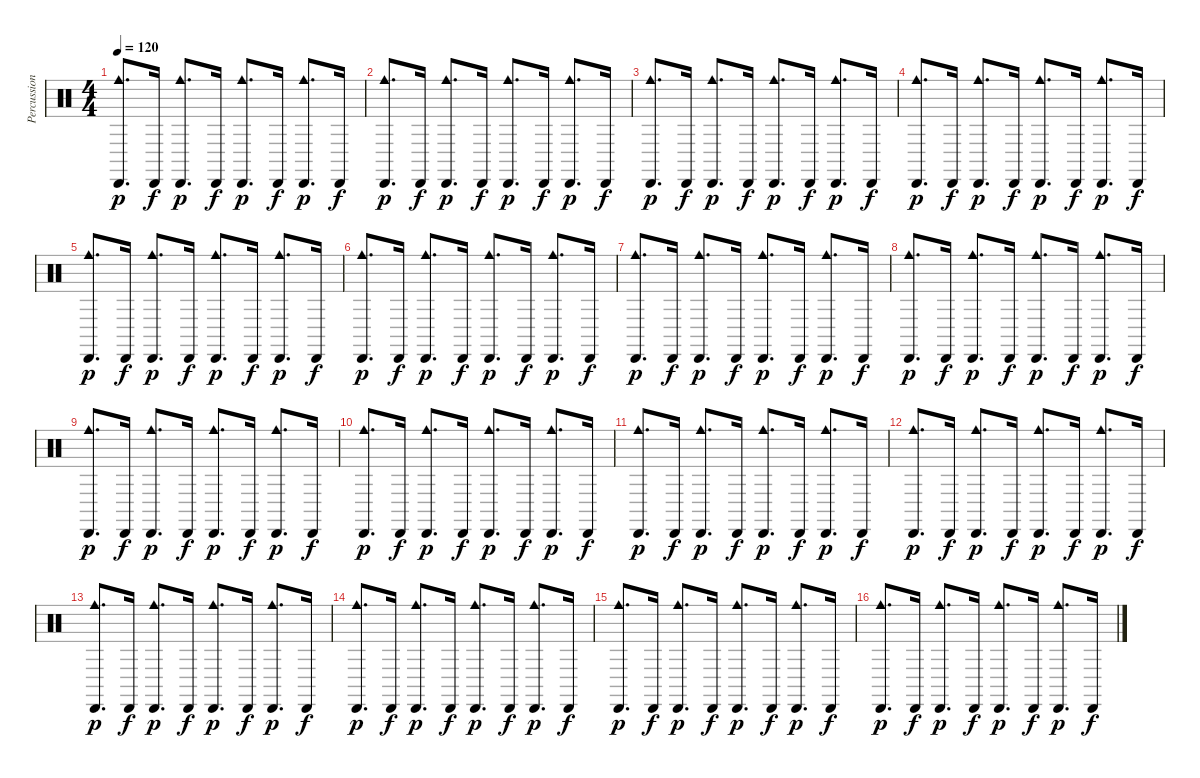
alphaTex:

\track ("Percussions" "Percussion") {instrument percussion}
\staff {score}
\articulation defaults
\ts (4 4)
\tempo 120
\clef neutral
\ks c
("Cabasa (hit)" "Cowbell medium (hit)").8{d dy p} "Cabasa (hit)".16{dy f} ("Cabasa (hit)" "Cowbell medium (hit)").8{d dy p} "Cabasa (hit)".16{dy f} ("Cabasa (hit)" "Cowbell medium (hit)").8{d dy p} "Cabasa (hit)".16{dy f} ("Cabasa (hit)" "Cowbell medium (hit)").8{d dy p} "Cabasa (hit)".16{dy f} |
("Cabasa (hit)" "Cowbell medium (hit)").8{d dy p} "Cabasa (hit)".16{dy f} ("Cabasa (hit)" "Cowbell medium (hit)").8{d dy p} "Cabasa (hit)".16{dy f} ("Cabasa (hit)" "Cowbell medium (hit)").8{d dy p} "Cabasa (hit)".16{dy f} ("Cabasa (hit)" "Cowbell medium (hit)").8{d dy p} "Cabasa (hit)".16{dy f} |
("Cabasa (hit)" "Cowbell medium (hit)").8{d dy p} "Cabasa (hit)".16{dy f} ("Cabasa (hit)" "Cowbell medium (hit)").8{d dy p} "Cabasa (hit)".16{dy f} ("Cabasa (hit)" "Cowbell medium (hit)").8{d dy p} "Cabasa (hit)".16{dy f} ("Cabasa (hit)" "Cowbell medium (hit)").8{d dy p} "Cabasa (hit)".16{dy f} |
("Cabasa (hit)" "Cowbell medium (hit)").8{d dy p} "Cabasa (hit)".16{dy f} ("Cabasa (hit)" "Cowbell medium (hit)").8{d dy p} "Cabasa (hit)".16{dy f} ("Cabasa (hit)" "Cowbell medium (hit)").8{d dy p} "Cabasa (hit)".16{dy f} ("Cabasa (hit)" "Cowbell medium (hit)").8{d dy p} "Cabasa (hit)".16{dy f} |
("Cabasa (hit)" "Cowbell medium (hit)").8{d dy p} "Cabasa (hit)".16{dy f} ("Cabasa (hit)" "Cowbell medium (hit)").8{d dy p} "Cabasa (hit)".16{dy f} ("Cabasa (hit)" "Cowbell medium (hit)").8{d dy p} "Cabasa (hit)".16{dy f} ("Cabasa (hit)" "Cowbell medium (hit)").8{d dy p} "Cabasa (hit)".16{dy f} |
("Cabasa (hit)" "Cowbell medium (hit)").8{d dy p} "Cabasa (hit)".16{dy f} ("Cabasa (hit)" "Cowbell medium (hit)").8{d dy p} "Cabasa (hit)".16{dy f} ("Cabasa (hit)" "Cowbell medium (hit)").8{d dy p} "Cabasa (hit)".16{dy f} ("Cabasa (hit)" "Cowbell medium (hit)").8{d dy p} "Cabasa (hit)".16{dy f} |
("Cabasa (hit)" "Cowbell medium (hit)").8{d dy p} "Cabasa (hit)".16{dy f} ("Cabasa (hit)" "Cowbell medium (hit)").8{d dy p} "Cabasa (hit)".16{dy f} ("Cabasa (hit)" "Cowbell medium (hit)").8{d dy p} "Cabasa (hit)".16{dy f} ("Cabasa (hit)" "Cowbell medium (hit)").8{d dy p} "Cabasa (hit)".16{dy f} |
("Cabasa (hit)" "Cowbell medium (hit)").8{d dy p} "Cabasa (hit)".16{dy f} ("Cabasa (hit)" "Cowbell medium (hit)").8{d dy p} "Cabasa (hit)".16{dy f} ("Cabasa (hit)" "Cowbell medium (hit)").8{d dy p} "Cabasa (hit)".16{dy f} ("Cabasa (hit)" "Cowbell medium (hit)").8{d dy p} "Cabasa (hit)".16{dy f} |
("Cabasa (hit)" "Cowbell medium (hit)").8{d dy p} "Cabasa (hit)".16{dy f} ("Cabasa (hit)" "Cowbell medium (hit)").8{d dy p} "Cabasa (hit)".16{dy f} ("Cabasa (hit)" "Cowbell medium (hit)").8{d dy p} "Cabasa (hit)".16{dy f} ("Cabasa (hit)" "Cowbell medium (hit)").8{d dy p} "Cabasa (hit)".16{dy f} |
("Cabasa (hit)" "Cowbell medium (hit)").8{d dy p} "Cabasa (hit)".16{dy f} ("Cabasa (hit)" "Cowbell medium (hit)").8{d dy p} "Cabasa (hit)".16{dy f} ("Cabasa (hit)" "Cowbell medium (hit)").8{d dy p} "Cabasa (hit)".16{dy f} ("Cabasa (hit)" "Cowbell medium (hit)").8{d dy p} "Cabasa (hit)".16{dy f} |
("Cabasa (hit)" "Cowbell medium (hit)").8{d dy p} "Cabasa (hit)".16{dy f} ("Cabasa (hit)" "Cowbell medium (hit)").8{d dy p} "Cabasa (hit)".16{dy f} ("Cabasa (hit)" "Cowbell medium (hit)").8{d dy p} "Cabasa (hit)".16{dy f} ("Cabasa (hit)" "Cowbell medium (hit)").8{d dy p} "Cabasa (hit)".16{dy f} |
("Cabasa (hit)" "Cowbell medium (hit)").8{d dy p} "Cabasa (hit)".16{dy f} ("Cabasa (hit)" "Cowbell medium (hit)").8{d dy p} "Cabasa (hit)".16{dy f} ("Cabasa (hit)" "Cowbell medium (hit)").8{d dy p} "Cabasa (hit)".16{dy f} ("Cabasa (hit)" "Cowbell medium (hit)").8{d dy p} "Cabasa (hit)".16{dy f} |
("Cabasa (hit)" "Cowbell medium (hit)").8{d dy p} "Cabasa (hit)".16{dy f} ("Cabasa (hit)" "Cowbell medium (hit)").8{d dy p} "Cabasa (hit)".16{dy f} ("Cabasa (hit)" "Cowbell medium (hit)").8{d dy p} "Cabasa (hit)".16{dy f} ("Cabasa (hit)" "Cowbell medium (hit)").8{d dy p} "Cabasa (hit)".16{dy f} |
("Cabasa (hit)" "Cowbell medium (hit)").8{d dy p} "Cabasa (hit)".16{dy f} ("Cabasa (hit)" "Cowbell medium (hit)").8{d dy p} "Cabasa (hit)".16{dy f} ("Cabasa (hit)" "Cowbell medium (hit)").8{d dy p} "Cabasa (hit)".16{dy f} ("Cabasa (hit)" "Cowbell medium (hit)").8{d dy p} "Cabasa (hit)".16{dy f} |
("Cabasa (hit)" "Cowbell medium (hit)").8{d dy p} "Cabasa (hit)".16{dy f} ("Cabasa (hit)" "Cowbell medium (hit)").8{d dy p} "Cabasa (hit)".16{dy f} ("Cabasa (hit)" "Cowbell medium (hit)").8{d dy p} "Cabasa (hit)".16{dy f} ("Cabasa (hit)" "Cowbell medium (hit)").8{d dy p} "Cabasa (hit)".16{dy f} |
("Cabasa (hit)" "Cowbell medium (hit)").8{d dy p} "Cabasa (hit)".16{dy f} ("Cabasa (hit)" "Cowbell medium (hit)").8{d dy p} "Cabasa (hit)".16{dy f} ("Cabasa (hit)" "Cowbell medium (hit)").8{d dy p} "Cabasa (hit)".16{dy f} ("Cabasa (hit)" "Cowbell medium (hit)").8{d dy p} "Cabasa (hit)".16{dy f}
